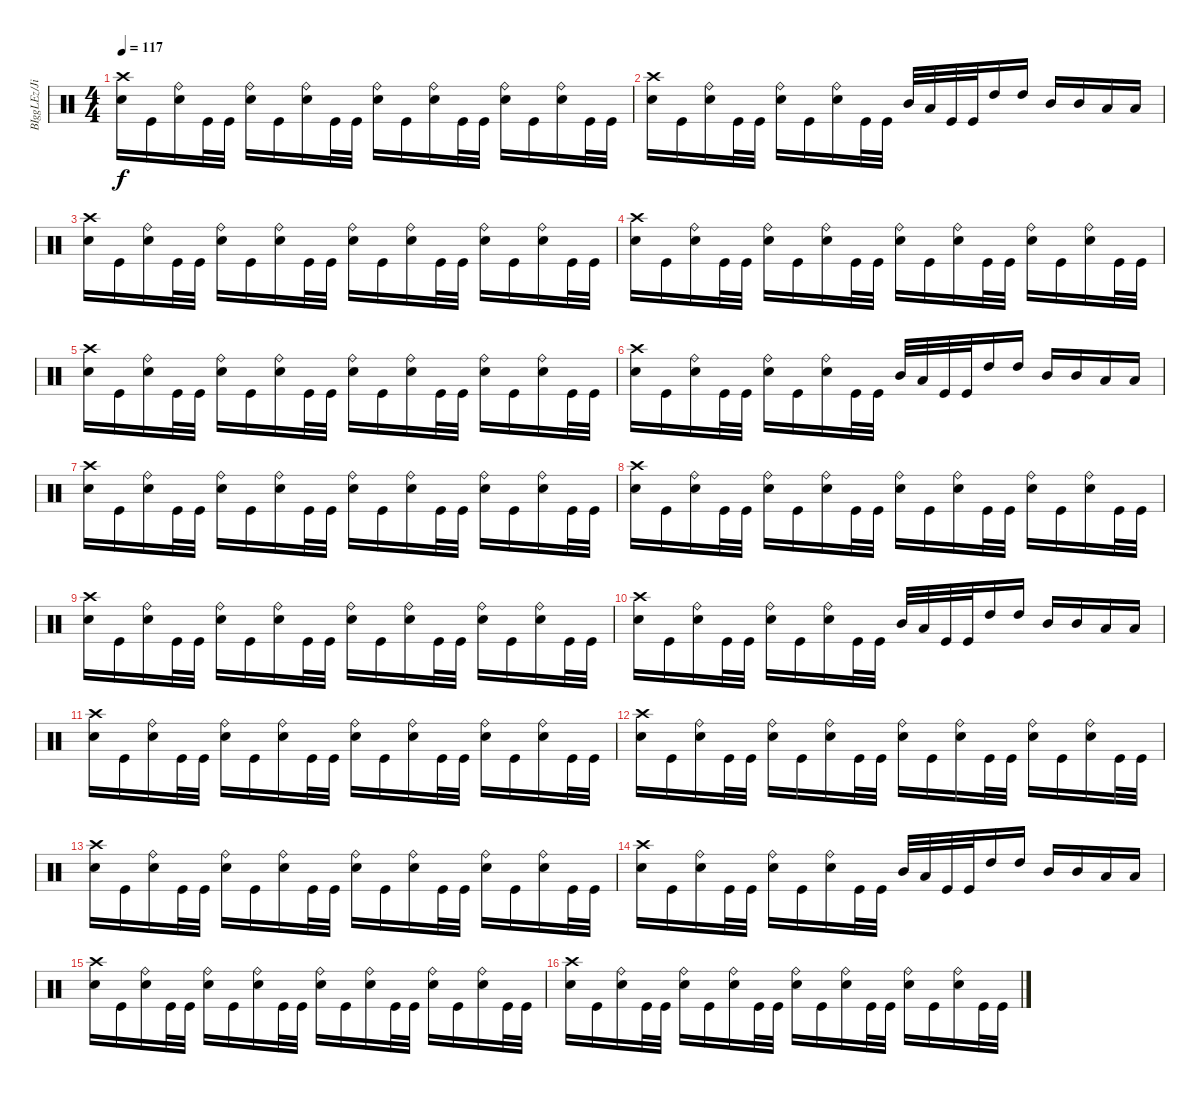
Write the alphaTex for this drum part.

\track ("BIggLEz/Jimmy" "BIggLEz/Ji") {instrument percussion}
\staff {score}
\articulation defaults
\ts (4 4)
\tempo 117
\clef neutral
\ks c
("Snare (hit) 2" "Crash high (hit)").16{dy f} "Kick (hit)".16 ("Snare (hit) 2" "Ride (bell)").16 "Kick (hit)".32 "Kick (hit)".32 ("Snare (hit) 2" "Ride (bell)").16 "Kick (hit)".16 ("Snare (hit) 2" "Ride (bell)").16 "Kick (hit)".32 "Kick (hit)".32 ("Snare (hit) 2" "Ride (bell)").16 "Kick (hit)".16 ("Snare (hit) 2" "Ride (bell)").16 "Kick (hit)".32 "Kick (hit)".32 ("Snare (hit) 2" "Ride (bell)").16 "Kick (hit)".16 ("Snare (hit) 2" "Ride (bell)").16 "Kick (hit)".32 "Kick (hit)".32 |
("Snare (hit) 2" "Crash high (hit)").16 "Kick (hit)".16 ("Snare (hit) 2" "Ride (bell)").16 "Kick (hit)".32 "Kick (hit)".32 ("Snare (hit) 2" "Ride (bell)").16 "Kick (hit)".16 ("Snare (hit) 2" "Ride (bell)").16 "Kick (hit)".32 "Kick (hit)".32 "Mid Tom (hit)".32 "Low Tom (hit)".32 "Kick (hit)".32 "Kick (hit)".32 "High Tom (hit)".16 "High Tom (hit)".16 "Mid Tom (hit)".16 "Mid Tom (hit)".16 "Low Tom (hit)".16 "Low Tom (hit)".16 |
("Snare (hit) 2" "Crash high (hit)").16 "Kick (hit)".16 ("Snare (hit) 2" "Ride (bell)").16 "Kick (hit)".32 "Kick (hit)".32 ("Snare (hit) 2" "Ride (bell)").16 "Kick (hit)".16 ("Snare (hit) 2" "Ride (bell)").16 "Kick (hit)".32 "Kick (hit)".32 ("Snare (hit) 2" "Ride (bell)").16 "Kick (hit)".16 ("Snare (hit) 2" "Ride (bell)").16 "Kick (hit)".32 "Kick (hit)".32 ("Snare (hit) 2" "Ride (bell)").16 "Kick (hit)".16 ("Snare (hit) 2" "Ride (bell)").16 "Kick (hit)".32 "Kick (hit)".32 |
("Snare (hit) 2" "Crash high (hit)").16 "Kick (hit)".16 ("Snare (hit) 2" "Ride (bell)").16 "Kick (hit)".32 "Kick (hit)".32 ("Snare (hit) 2" "Ride (bell)").16 "Kick (hit)".16 ("Snare (hit) 2" "Ride (bell)").16 "Kick (hit)".32 "Kick (hit)".32 ("Snare (hit) 2" "Ride (bell)").16 "Kick (hit)".16 ("Snare (hit) 2" "Ride (bell)").16 "Kick (hit)".32 "Kick (hit)".32 ("Snare (hit) 2" "Ride (bell)").16 "Kick (hit)".16 ("Snare (hit) 2" "Ride (bell)").16 "Kick (hit)".32 "Kick (hit)".32 |
("Snare (hit) 2" "Crash high (hit)").16 "Kick (hit)".16 ("Snare (hit) 2" "Ride (bell)").16 "Kick (hit)".32 "Kick (hit)".32 ("Snare (hit) 2" "Ride (bell)").16 "Kick (hit)".16 ("Snare (hit) 2" "Ride (bell)").16 "Kick (hit)".32 "Kick (hit)".32 ("Snare (hit) 2" "Ride (bell)").16 "Kick (hit)".16 ("Snare (hit) 2" "Ride (bell)").16 "Kick (hit)".32 "Kick (hit)".32 ("Snare (hit) 2" "Ride (bell)").16 "Kick (hit)".16 ("Snare (hit) 2" "Ride (bell)").16 "Kick (hit)".32 "Kick (hit)".32 |
("Snare (hit) 2" "Crash high (hit)").16 "Kick (hit)".16 ("Snare (hit) 2" "Ride (bell)").16 "Kick (hit)".32 "Kick (hit)".32 ("Snare (hit) 2" "Ride (bell)").16 "Kick (hit)".16 ("Snare (hit) 2" "Ride (bell)").16 "Kick (hit)".32 "Kick (hit)".32 "Mid Tom (hit)".32 "Low Tom (hit)".32 "Kick (hit)".32 "Kick (hit)".32 "High Tom (hit)".16 "High Tom (hit)".16 "Mid Tom (hit)".16 "Mid Tom (hit)".16 "Low Tom (hit)".16 "Low Tom (hit)".16 |
("Snare (hit) 2" "Crash high (hit)").16 "Kick (hit)".16 ("Snare (hit) 2" "Ride (bell)").16 "Kick (hit)".32 "Kick (hit)".32 ("Snare (hit) 2" "Ride (bell)").16 "Kick (hit)".16 ("Snare (hit) 2" "Ride (bell)").16 "Kick (hit)".32 "Kick (hit)".32 ("Snare (hit) 2" "Ride (bell)").16 "Kick (hit)".16 ("Snare (hit) 2" "Ride (bell)").16 "Kick (hit)".32 "Kick (hit)".32 ("Snare (hit) 2" "Ride (bell)").16 "Kick (hit)".16 ("Snare (hit) 2" "Ride (bell)").16 "Kick (hit)".32 "Kick (hit)".32 |
("Snare (hit) 2" "Crash high (hit)").16 "Kick (hit)".16 ("Snare (hit) 2" "Ride (bell)").16 "Kick (hit)".32 "Kick (hit)".32 ("Snare (hit) 2" "Ride (bell)").16 "Kick (hit)".16 ("Snare (hit) 2" "Ride (bell)").16 "Kick (hit)".32 "Kick (hit)".32 ("Snare (hit) 2" "Ride (bell)").16 "Kick (hit)".16 ("Snare (hit) 2" "Ride (bell)").16 "Kick (hit)".32 "Kick (hit)".32 ("Snare (hit) 2" "Ride (bell)").16 "Kick (hit)".16 ("Snare (hit) 2" "Ride (bell)").16 "Kick (hit)".32 "Kick (hit)".32 |
("Snare (hit) 2" "Crash high (hit)").16 "Kick (hit)".16 ("Snare (hit) 2" "Ride (bell)").16 "Kick (hit)".32 "Kick (hit)".32 ("Snare (hit) 2" "Ride (bell)").16 "Kick (hit)".16 ("Snare (hit) 2" "Ride (bell)").16 "Kick (hit)".32 "Kick (hit)".32 ("Snare (hit) 2" "Ride (bell)").16 "Kick (hit)".16 ("Snare (hit) 2" "Ride (bell)").16 "Kick (hit)".32 "Kick (hit)".32 ("Snare (hit) 2" "Ride (bell)").16 "Kick (hit)".16 ("Snare (hit) 2" "Ride (bell)").16 "Kick (hit)".32 "Kick (hit)".32 |
("Snare (hit) 2" "Crash high (hit)").16 "Kick (hit)".16 ("Snare (hit) 2" "Ride (bell)").16 "Kick (hit)".32 "Kick (hit)".32 ("Snare (hit) 2" "Ride (bell)").16 "Kick (hit)".16 ("Snare (hit) 2" "Ride (bell)").16 "Kick (hit)".32 "Kick (hit)".32 "Mid Tom (hit)".32 "Low Tom (hit)".32 "Kick (hit)".32 "Kick (hit)".32 "High Tom (hit)".16 "High Tom (hit)".16 "Mid Tom (hit)".16 "Mid Tom (hit)".16 "Low Tom (hit)".16 "Low Tom (hit)".16 |
("Snare (hit) 2" "Crash high (hit)").16 "Kick (hit)".16 ("Snare (hit) 2" "Ride (bell)").16 "Kick (hit)".32 "Kick (hit)".32 ("Snare (hit) 2" "Ride (bell)").16 "Kick (hit)".16 ("Snare (hit) 2" "Ride (bell)").16 "Kick (hit)".32 "Kick (hit)".32 ("Snare (hit) 2" "Ride (bell)").16 "Kick (hit)".16 ("Snare (hit) 2" "Ride (bell)").16 "Kick (hit)".32 "Kick (hit)".32 ("Snare (hit) 2" "Ride (bell)").16 "Kick (hit)".16 ("Snare (hit) 2" "Ride (bell)").16 "Kick (hit)".32 "Kick (hit)".32 |
("Snare (hit) 2" "Crash high (hit)").16 "Kick (hit)".16 ("Snare (hit) 2" "Ride (bell)").16 "Kick (hit)".32 "Kick (hit)".32 ("Snare (hit) 2" "Ride (bell)").16 "Kick (hit)".16 ("Snare (hit) 2" "Ride (bell)").16 "Kick (hit)".32 "Kick (hit)".32 ("Snare (hit) 2" "Ride (bell)").16 "Kick (hit)".16 ("Snare (hit) 2" "Ride (bell)").16 "Kick (hit)".32 "Kick (hit)".32 ("Snare (hit) 2" "Ride (bell)").16 "Kick (hit)".16 ("Snare (hit) 2" "Ride (bell)").16 "Kick (hit)".32 "Kick (hit)".32 |
("Snare (hit) 2" "Crash high (hit)").16 "Kick (hit)".16 ("Snare (hit) 2" "Ride (bell)").16 "Kick (hit)".32 "Kick (hit)".32 ("Snare (hit) 2" "Ride (bell)").16 "Kick (hit)".16 ("Snare (hit) 2" "Ride (bell)").16 "Kick (hit)".32 "Kick (hit)".32 ("Snare (hit) 2" "Ride (bell)").16 "Kick (hit)".16 ("Snare (hit) 2" "Ride (bell)").16 "Kick (hit)".32 "Kick (hit)".32 ("Snare (hit) 2" "Ride (bell)").16 "Kick (hit)".16 ("Snare (hit) 2" "Ride (bell)").16 "Kick (hit)".32 "Kick (hit)".32 |
("Snare (hit) 2" "Crash high (hit)").16 "Kick (hit)".16 ("Snare (hit) 2" "Ride (bell)").16 "Kick (hit)".32 "Kick (hit)".32 ("Snare (hit) 2" "Ride (bell)").16 "Kick (hit)".16 ("Snare (hit) 2" "Ride (bell)").16 "Kick (hit)".32 "Kick (hit)".32 "Mid Tom (hit)".32 "Low Tom (hit)".32 "Kick (hit)".32 "Kick (hit)".32 "High Tom (hit)".16 "High Tom (hit)".16 "Mid Tom (hit)".16 "Mid Tom (hit)".16 "Low Tom (hit)".16 "Low Tom (hit)".16 |
("Snare (hit) 2" "Crash high (hit)").16 "Kick (hit)".16 ("Snare (hit) 2" "Ride (bell)").16 "Kick (hit)".32 "Kick (hit)".32 ("Snare (hit) 2" "Ride (bell)").16 "Kick (hit)".16 ("Snare (hit) 2" "Ride (bell)").16 "Kick (hit)".32 "Kick (hit)".32 ("Snare (hit) 2" "Ride (bell)").16 "Kick (hit)".16 ("Snare (hit) 2" "Ride (bell)").16 "Kick (hit)".32 "Kick (hit)".32 ("Snare (hit) 2" "Ride (bell)").16 "Kick (hit)".16 ("Snare (hit) 2" "Ride (bell)").16 "Kick (hit)".32 "Kick (hit)".32 |
("Snare (hit) 2" "Crash high (hit)").16 "Kick (hit)".16 ("Snare (hit) 2" "Ride (bell)").16 "Kick (hit)".32 "Kick (hit)".32 ("Snare (hit) 2" "Ride (bell)").16 "Kick (hit)".16 ("Snare (hit) 2" "Ride (bell)").16 "Kick (hit)".32 "Kick (hit)".32 ("Snare (hit) 2" "Ride (bell)").16 "Kick (hit)".16 ("Snare (hit) 2" "Ride (bell)").16 "Kick (hit)".32 "Kick (hit)".32 ("Snare (hit) 2" "Ride (bell)").16 "Kick (hit)".16 ("Snare (hit) 2" "Ride (bell)").16 "Kick (hit)".32 "Kick (hit)".32
